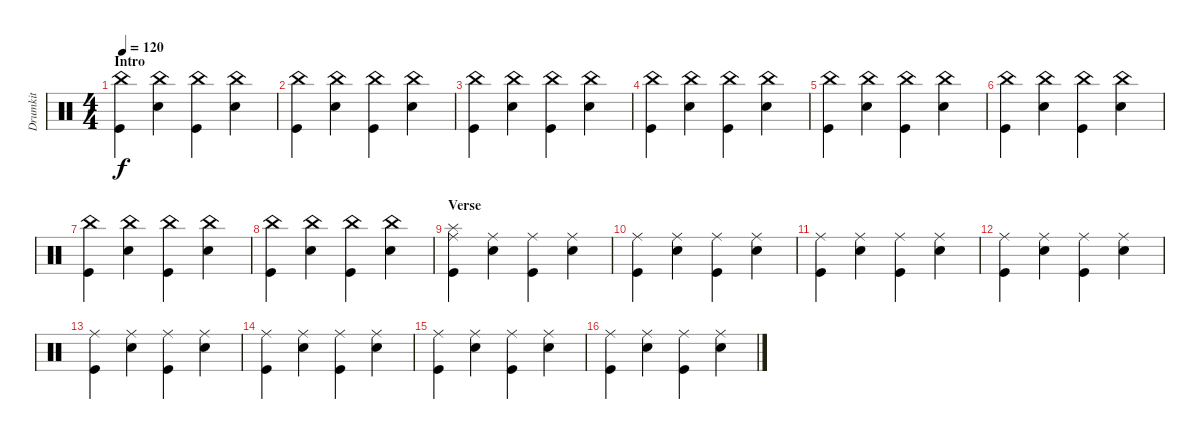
\track ("Drumkit" "Drumkit") {instrument percussion}
\staff {score}
\articulation defaults
\ts (4 4)
\section ("" "Intro")
\tempo 120
\clef neutral
\ks c
("Kick (hit)" "China (hit)").4{dy f} ("Snare (hit) 2" "China (hit)").4 ("Kick (hit)" "China (hit)").4 ("Snare (hit) 2" "China (hit)").4 |
("Kick (hit)" "China (hit)").4 ("Snare (hit) 2" "China (hit)").4 ("Kick (hit)" "China (hit)").4 ("Snare (hit) 2" "China (hit)").4 |
("Kick (hit)" "China (hit)").4 ("Snare (hit) 2" "China (hit)").4 ("Kick (hit)" "China (hit)").4 ("Snare (hit) 2" "China (hit)").4 |
("Kick (hit)" "China (hit)").4 ("Snare (hit) 2" "China (hit)").4 ("Kick (hit)" "China (hit)").4 ("Snare (hit) 2" "China (hit)").4 |
("Kick (hit)" "China (hit)").4 ("Snare (hit) 2" "China (hit)").4 ("Kick (hit)" "China (hit)").4 ("Snare (hit) 2" "China (hit)").4 |
("Kick (hit)" "China (hit)").4 ("Snare (hit) 2" "China (hit)").4 ("Kick (hit)" "China (hit)").4 ("Snare (hit) 2" "China (hit)").4 |
("Kick (hit)" "China (hit)").4 ("Snare (hit) 2" "China (hit)").4 ("Kick (hit)" "China (hit)").4 ("Snare (hit) 2" "China (hit)").4 |
("Kick (hit)" "China (hit)").4 ("Snare (hit) 2" "China (hit)").4 ("Kick (hit)" "China (hit)").4 ("Snare (hit) 2" "China (hit)").4 |
\section ("" "Verse")
("Kick (hit)" "Ride (middle)" "Splash (hit)").4 ("Snare (hit) 2" "Ride (middle)").4 ("Kick (hit)" "Ride (middle)").4 ("Snare (hit) 2" "Ride (middle)").4 |
("Kick (hit)" "Ride (middle)").4 ("Snare (hit) 2" "Ride (middle)").4 ("Kick (hit)" "Ride (middle)").4 ("Snare (hit) 2" "Ride (middle)").4 |
("Kick (hit)" "Ride (middle)").4 ("Snare (hit) 2" "Ride (middle)").4 ("Kick (hit)" "Ride (middle)").4 ("Snare (hit) 2" "Ride (middle)").4 |
("Kick (hit)" "Ride (middle)").4 ("Snare (hit) 2" "Ride (middle)").4 ("Kick (hit)" "Ride (middle)").4 ("Snare (hit) 2" "Ride (middle)").4 |
("Kick (hit)" "Ride (middle)").4 ("Snare (hit) 2" "Ride (middle)").4 ("Kick (hit)" "Ride (middle)").4 ("Snare (hit) 2" "Ride (middle)").4 |
("Kick (hit)" "Ride (middle)").4 ("Snare (hit) 2" "Ride (middle)").4 ("Kick (hit)" "Ride (middle)").4 ("Snare (hit) 2" "Ride (middle)").4 |
("Kick (hit)" "Ride (middle)").4 ("Snare (hit) 2" "Ride (middle)").4 ("Kick (hit)" "Ride (middle)").4 ("Snare (hit) 2" "Ride (middle)").4 |
("Kick (hit)" "Ride (middle)").4 ("Snare (hit) 2" "Ride (middle)").4 ("Kick (hit)" "Ride (middle)").4 ("Snare (hit) 2" "Ride (middle)").4
